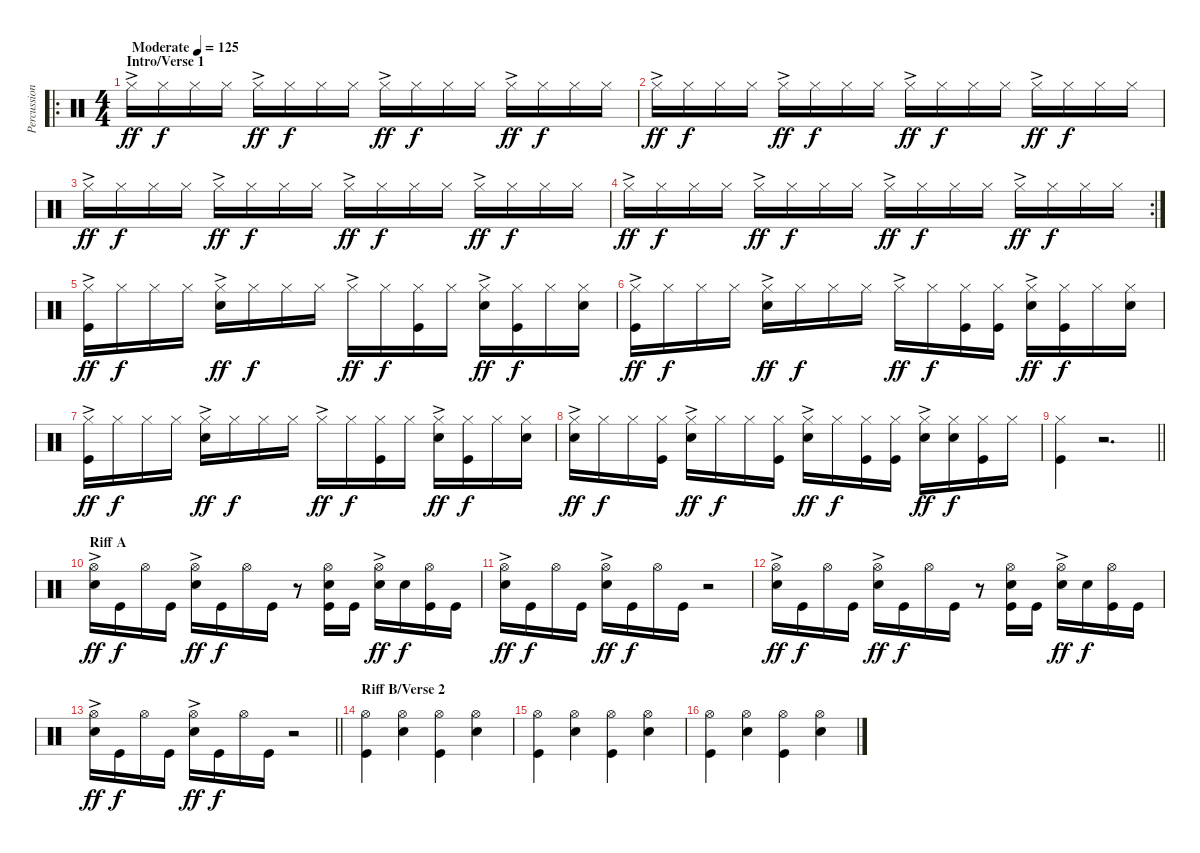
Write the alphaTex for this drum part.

\track ("Percussion" "Percussion") {instrument percussion}
\staff {score}
\articulation defaults
\ro
\ts (4 4)
\section ("" "Intro/Verse 1")
\tempo (125 "Moderate")
\clef neutral
\ks c "Hi-Hat (closed)"{ac}.16{dy ff} "Hi-Hat (closed)".16{dy f} "Hi-Hat (closed)".16 "Hi-Hat (closed)".16 "Hi-Hat (closed)"{ac}.16{dy ff} "Hi-Hat (closed)".16{dy f} "Hi-Hat (closed)".16 "Hi-Hat (closed)".16 "Hi-Hat (closed)"{ac}.16{dy ff} "Hi-Hat (closed)".16{dy f} "Hi-Hat (closed)".16 "Hi-Hat (closed)".16 "Hi-Hat (closed)"{ac}.16{dy ff} "Hi-Hat (closed)".16{dy f} "Hi-Hat (closed)".16 "Hi-Hat (closed)".16
|
"Hi-Hat (closed)"{ac}.16{dy ff} "Hi-Hat (closed)".16{dy f} "Hi-Hat (closed)".16 "Hi-Hat (closed)".16 "Hi-Hat (closed)"{ac}.16{dy ff} "Hi-Hat (closed)".16{dy f} "Hi-Hat (closed)".16 "Hi-Hat (closed)".16 "Hi-Hat (closed)"{ac}.16{dy ff} "Hi-Hat (closed)".16{dy f} "Hi-Hat (closed)".16 "Hi-Hat (closed)".16 "Hi-Hat (closed)"{ac}.16{dy ff} "Hi-Hat (closed)".16{dy f} "Hi-Hat (closed)".16 "Hi-Hat (closed)".16 |
"Hi-Hat (closed)"{ac}.16{dy ff} "Hi-Hat (closed)".16{dy f} "Hi-Hat (closed)".16 "Hi-Hat (closed)".16 "Hi-Hat (closed)"{ac}.16{dy ff} "Hi-Hat (closed)".16{dy f} "Hi-Hat (closed)".16 "Hi-Hat (closed)".16 "Hi-Hat (closed)"{ac}.16{dy ff} "Hi-Hat (closed)".16{dy f} "Hi-Hat (closed)".16 "Hi-Hat (closed)".16 "Hi-Hat (closed)"{ac}.16{dy ff} "Hi-Hat (closed)".16{dy f} "Hi-Hat (closed)".16 "Hi-Hat (closed)".16 |
\rc 2 "Hi-Hat (closed)"{ac}.16{dy ff} "Hi-Hat (closed)".16{dy f} "Hi-Hat (closed)".16 "Hi-Hat (closed)".16 "Hi-Hat (closed)"{ac}.16{dy ff} "Hi-Hat (closed)".16{dy f} "Hi-Hat (closed)".16 "Hi-Hat (closed)".16 "Hi-Hat (closed)"{ac}.16{dy ff} "Hi-Hat (closed)".16{dy f} "Hi-Hat (closed)".16 "Hi-Hat (closed)".16 "Hi-Hat (closed)"{ac}.16{dy ff} "Hi-Hat (closed)".16{dy f} "Hi-Hat (closed)".16 "Hi-Hat (closed)".16
|
("Hi-Hat (closed)"{ac} "Kick (hit)").16{dy ff} "Hi-Hat (closed)".16{dy f} "Hi-Hat (closed)".16 "Hi-Hat (closed)".16 ("Hi-Hat (closed)"{ac} "Snare (hit) 2").16{dy ff} "Hi-Hat (closed)".16{dy f} "Hi-Hat (closed)".16 "Hi-Hat (closed)".16 "Hi-Hat (closed)"{ac}.16{dy ff} "Hi-Hat (closed)".16{dy f} ("Hi-Hat (closed)" "Kick (hit)").16 "Hi-Hat (closed)".16 ("Hi-Hat (closed)"{ac} "Snare (hit) 2").16{dy ff} ("Hi-Hat (closed)" "Kick (hit)").16{dy f} "Hi-Hat (closed)".16 ("Hi-Hat (closed)" "Snare (hit) 2").16 |
("Hi-Hat (closed)"{ac} "Kick (hit)").16{dy ff} "Hi-Hat (closed)".16{dy f} "Hi-Hat (closed)".16 "Hi-Hat (closed)".16 ("Hi-Hat (closed)"{ac} "Snare (hit) 2").16{dy ff} "Hi-Hat (closed)".16{dy f} "Hi-Hat (closed)".16 "Hi-Hat (closed)".16 "Hi-Hat (closed)"{ac}.16{dy ff} "Hi-Hat (closed)".16{dy f} ("Hi-Hat (closed)" "Kick (hit)").16 ("Hi-Hat (closed)" "Kick (hit)").16 ("Hi-Hat (closed)"{ac} "Snare (hit) 2").16{dy ff} ("Hi-Hat (closed)" "Kick (hit)").16{dy f} "Hi-Hat (closed)".16 ("Hi-Hat (closed)" "Snare (hit) 2").16 |
("Hi-Hat (closed)"{ac} "Kick (hit)").16{dy ff} "Hi-Hat (closed)".16{dy f} "Hi-Hat (closed)".16 "Hi-Hat (closed)".16 ("Hi-Hat (closed)"{ac} "Snare (hit) 2").16{dy ff} "Hi-Hat (closed)".16{dy f} "Hi-Hat (closed)".16 "Hi-Hat (closed)".16 "Hi-Hat (closed)"{ac}.16{dy ff} "Hi-Hat (closed)".16{dy f} ("Hi-Hat (closed)" "Kick (hit)").16 "Hi-Hat (closed)".16 ("Hi-Hat (closed)"{ac} "Snare (hit) 2").16{dy ff} ("Hi-Hat (closed)" "Kick (hit)").16{dy f} "Hi-Hat (closed)".16 ("Hi-Hat (closed)" "Snare (hit) 2").16 |
("Hi-Hat (closed)"{ac} "Snare (hit) 2").16{dy ff} "Hi-Hat (closed)".16{dy f} "Hi-Hat (closed)".16 ("Hi-Hat (closed)" "Kick (hit)").16 ("Hi-Hat (closed)"{ac} "Snare (hit) 2").16{dy ff} "Hi-Hat (closed)".16{dy f} "Hi-Hat (closed)".16 ("Hi-Hat (closed)" "Kick (hit)").16 ("Hi-Hat (closed)"{ac} "Snare (hit) 2").16{dy ff} "Hi-Hat (closed)".16{dy f} ("Hi-Hat (closed)" "Kick (hit)").16 ("Hi-Hat (closed)" "Kick (hit)").16 ("Hi-Hat (closed)"{ac} "Snare (hit) 2").16{dy ff} ("Hi-Hat (closed)" "Snare (hit) 2").16{dy f} ("Hi-Hat (closed)" "Kick (hit)").16 "Hi-Hat (closed)".16 |
\barLineRight lightlight
("Hi-Hat (closed)" "Kick (hit)").4 r.2{d} |
\section ("" "Riff A")
("Hi-Hat (open)"{ac} "Snare (hit) 2").16{dy ff} "Kick (hit)".16{dy f} "Hi-Hat (open)".16 "Kick (hit)".16 ("Hi-Hat (open)"{ac} "Snare (hit) 2").16{dy ff} "Kick (hit)".16{dy f} "Hi-Hat (open)".16 "Kick (hit)".16 r.8 ("Hi-Hat (open)" "Snare (hit) 2" "Kick (hit)").16 "Kick (hit)".16 ("Hi-Hat (open)"{ac} "Snare (hit) 2").16{dy ff} "Snare (hit) 2".16{dy f} ("Hi-Hat (open)" "Kick (hit)").16 "Kick (hit)".16 |
("Hi-Hat (open)"{ac} "Snare (hit) 2").16{dy ff} "Kick (hit)".16{dy f} "Hi-Hat (open)".16 "Kick (hit)".16 ("Hi-Hat (open)"{ac} "Snare (hit) 2").16{dy ff} "Kick (hit)".16{dy f} "Hi-Hat (open)".16 "Kick (hit)".16 r.2 |
("Hi-Hat (open)"{ac} "Snare (hit) 2").16{dy ff} "Kick (hit)".16{dy f} "Hi-Hat (open)".16 "Kick (hit)".16 ("Hi-Hat (open)"{ac} "Snare (hit) 2").16{dy ff} "Kick (hit)".16{dy f} "Hi-Hat (open)".16 "Kick (hit)".16 r.8 ("Hi-Hat (open)" "Snare (hit) 2" "Kick (hit)").16 "Kick (hit)".16 ("Hi-Hat (open)"{ac} "Snare (hit) 2").16{dy ff} "Snare (hit) 2".16{dy f} ("Hi-Hat (open)" "Kick (hit)").16 "Kick (hit)".16 |
\barLineRight lightlight
("Hi-Hat (open)"{ac} "Snare (hit) 2").16{dy ff} "Kick (hit)".16{dy f} "Hi-Hat (open)".16 "Kick (hit)".16 ("Hi-Hat (open)"{ac} "Snare (hit) 2").16{dy ff} "Kick (hit)".16{dy f} "Hi-Hat (open)".16 "Kick (hit)".16 r.2 |
\section ("" "Riff B/Verse 2")
("Hi-Hat (open)" "Kick (hit)").4 ("Hi-Hat (open)" "Snare (hit) 2").4 ("Hi-Hat (open)" "Kick (hit)").4 ("Hi-Hat (open)" "Snare (hit) 2").4 |
("Hi-Hat (open)" "Kick (hit)").4 ("Hi-Hat (open)" "Snare (hit) 2").4 ("Hi-Hat (open)" "Kick (hit)").4 ("Hi-Hat (open)" "Snare (hit) 2").4 |
("Hi-Hat (open)" "Kick (hit)").4 ("Hi-Hat (open)" "Snare (hit) 2").4 ("Hi-Hat (open)" "Kick (hit)").4 ("Hi-Hat (open)" "Snare (hit) 2").4
